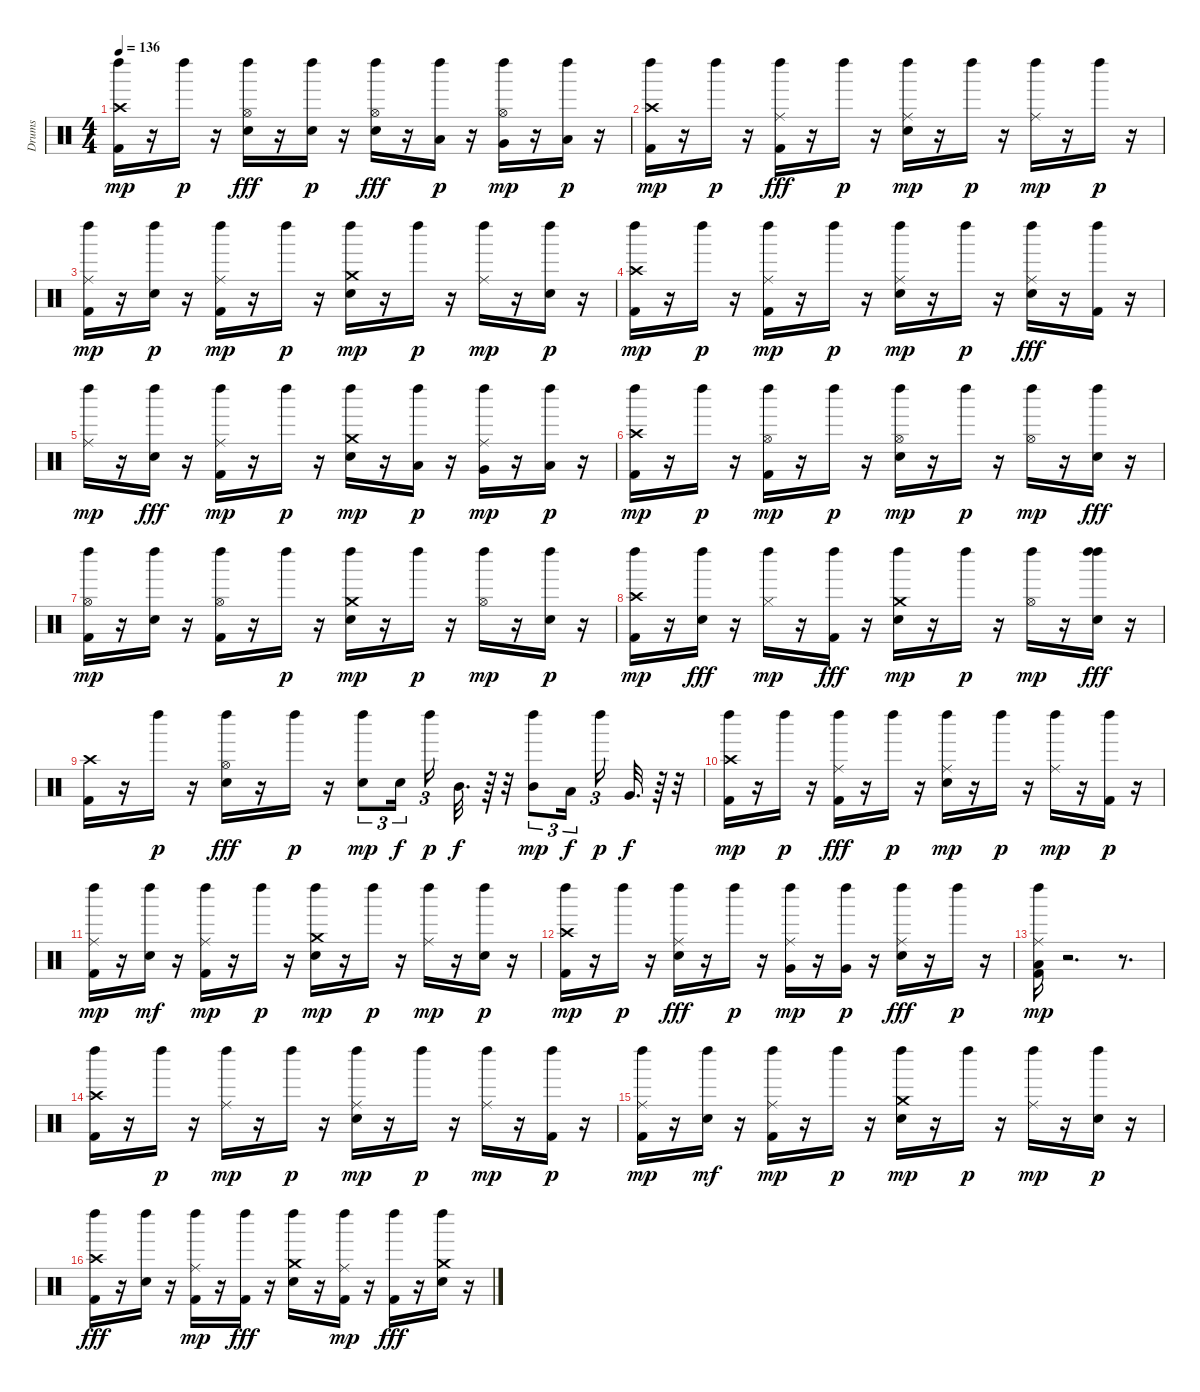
\track ("Drums" "Drums") {instrument percussion}
\staff {score}
\articulation defaults
\ts (4 4)
\tempo 136
\clef neutral
\ks c
("Kick (hit) 2" "Crash high (hit)" "Left Maraca (hit)").16{dy mp} r.16 "Left Maraca (hit)".16{dy p} r.16 ("Left Maraca (hit)" "Hi-Hat (open)" "Electric Snare (hit)").16{dy fff} r.16 ("Left Maraca (hit)" "Electric Snare (hit)").16{dy p} r.16 ("Left Maraca (hit)" "Hi-Hat (open)" "Electric Snare (hit)").16{dy fff} r.16 ("Left Maraca (hit)" "Low Tom (hit)").16{dy p} r.16 ("Left Maraca (hit)" "Hi-Hat (open)" "Very Low Tom (hit)").16{dy mp} r.16 ("Left Maraca (hit)" "Low Floor Tom (hit)").16{dy p} r.16 |
("Kick (hit) 2" "Crash high (hit)" "Left Maraca (hit)").16{dy mp} r.16 "Left Maraca (hit)".16{dy p} r.16 ("Ride (middle)" "Left Maraca (hit)" "Kick (hit) 2").16{dy fff} r.16 "Left Maraca (hit)".16{dy p} r.16 ("Electric Snare (hit)" "Ride (middle)" "Left Maraca (hit)").16{dy mp} r.16 "Left Maraca (hit)".16{dy p} r.16 ("Ride (middle)" "Left Maraca (hit)").16{dy mp} r.16 "Left Maraca (hit)".16{dy p} r.16 |
("Kick (hit) 2" "Ride (middle)" "Left Maraca (hit)").16{dy mp} r.16 ("Left Maraca (hit)" "Electric Snare (hit)").16{dy p} r.16 ("Kick (hit) 2" "Ride (middle)" "Left Maraca (hit)").16{dy mp} r.16 "Left Maraca (hit)".16{dy p} r.16 ("Electric Snare (hit)" "Crash medium (hit)" "Left Maraca (hit)").16{dy mp} r.16 "Left Maraca (hit)".16{dy p} r.16 ("Ride (middle)" "Left Maraca (hit)").16{dy mp} r.16 ("Electric Snare (hit)" "Left Maraca (hit)").16{dy p} r.16 |
("Kick (hit) 2" "Crash high (hit)" "Left Maraca (hit)").16{dy mp} r.16 "Left Maraca (hit)".16{dy p} r.16 ("Ride (middle)" "Kick (hit) 2" "Left Maraca (hit)").16{dy mp} r.16 "Left Maraca (hit)".16{dy p} r.16 ("Electric Snare (hit)" "Ride (middle)" "Left Maraca (hit)").16{dy mp} r.16 "Left Maraca (hit)".16{dy p} r.16 ("Ride (middle)" "Left Maraca (hit)" "Electric Snare (hit)").16{dy fff} r.16 ("Left Maraca (hit)" "Kick (hit) 2").16 r.16 |
("Ride (middle)" "Left Maraca (hit)").16{dy mp} r.16 ("Left Maraca (hit)" "Electric Snare (hit)").16{dy fff} r.16 ("Kick (hit) 2" "Ride (middle)" "Left Maraca (hit)").16{dy mp} r.16 "Left Maraca (hit)".16{dy p} r.16 ("Electric Snare (hit)" "Crash medium (hit)" "Left Maraca (hit)").16{dy mp} r.16 ("Left Maraca (hit)" "Low Tom (hit)").16{dy p} r.16 ("Ride (middle)" "Left Maraca (hit)" "Very Low Tom (hit)").16{dy mp} r.16 ("Left Maraca (hit)" "Low Floor Tom (hit)").16{dy p} r.16 |
("Kick (hit) 2" "Crash high (hit)" "Left Maraca (hit)").16{dy mp} r.16 "Left Maraca (hit)".16{dy p} r.16 ("Left Maraca (hit)" "Kick (hit) 2" "Hi-Hat (open)").16{dy mp} r.16 "Left Maraca (hit)".16{dy p} r.16 ("Electric Snare (hit)" "Left Maraca (hit)" "Hi-Hat (open)").16{dy mp} r.16 "Left Maraca (hit)".16{dy p} r.16 ("Left Maraca (hit)" "Hi-Hat (open)").16{dy mp} r.16 ("Left Maraca (hit)" "Electric Snare (hit)").16{dy fff} r.16 |
("Kick (hit) 2" "Left Maraca (hit)" "Hi-Hat (open)").16{dy mp} r.16 ("Left Maraca (hit)" "Electric Snare (hit)").16 r.16 ("Kick (hit) 2" "Left Maraca (hit)" "Hi-Hat (open)").16 r.16 "Left Maraca (hit)".16{dy p} r.16 ("Electric Snare (hit)" "Crash medium (hit)" "Left Maraca (hit)").16{dy mp} r.16 "Left Maraca (hit)".16{dy p} r.16 ("Left Maraca (hit)" "Hi-Hat (open)").16{dy mp} r.16 ("Electric Snare (hit)" "Left Maraca (hit)").16{dy p} r.16 |
("Kick (hit) 2" "Crash high (hit)" "Left Maraca (hit)").16{dy mp} r.16 ("Left Maraca (hit)" "Electric Snare (hit)").16{dy fff} r.16 ("Left Maraca (hit)" "Hi-Hat (closed)").16{dy mp} r.16 ("Left Maraca (hit)" "Kick (hit) 2").16{dy fff} r.16 ("Electric Snare (hit)" "Left Maraca (hit)" "Crash medium (hit)").16{dy mp} r.16 "Left Maraca (hit)".16{dy p} r.16 ("Left Maraca (hit)" "Hi-Hat (open)").16{dy mp} r.16 ("Left Maraca (hit)" "Left Maraca (hit)" "Electric Snare (hit)").16{dy fff} r.16 |
("Kick (hit) 2" "Crash high (hit)").16 r.16 "Left Maraca (hit)".16{dy p} r.16 ("Left Maraca (hit)" "Electric Snare (hit)" "Hi-Hat (open)").16{dy fff} r.16 "Left Maraca (hit)".16{dy p} r.16 ("Electric Snare (hit)" "Left Maraca (hit)").8{tu (3 2) dy mp} "Electric Snare (hit)".16{tu (3 2) dy f beam splitsecondary} "Left Maraca (hit)".16{tu (3 2) dy p} "Mid Tom (hit)".32{d dy f} r.64 r.32 ("Left Maraca (hit)" "Mid Tom (hit)").8{tu (3 2) dy mp} "Low Tom (hit)".16{tu (3 2) dy f beam splitsecondary} "Left Maraca (hit)".16{tu (3 2) dy p} "Very Low Tom (hit)".32{d dy f} r.64 r.32 |
("Kick (hit) 2" "Crash high (hit)" "Left Maraca (hit)").16{dy mp} r.16 "Left Maraca (hit)".16{dy p} r.16 ("Ride (middle)" "Left Maraca (hit)" "Kick (hit) 2").16{dy fff} r.16 "Left Maraca (hit)".16{dy p} r.16 ("Electric Snare (hit)" "Ride (middle)" "Left Maraca (hit)").16{dy mp} r.16 "Left Maraca (hit)".16{dy p} r.16 ("Ride (middle)" "Left Maraca (hit)").16{dy mp} r.16 ("Left Maraca (hit)" "Kick (hit) 2").16{dy p} r.16 |
("Kick (hit) 2" "Ride (middle)" "Left Maraca (hit)").16{dy mp} r.16 ("Left Maraca (hit)" "Electric Snare (hit)").16{dy mf} r.16 ("Kick (hit) 2" "Ride (middle)" "Left Maraca (hit)").16{dy mp} r.16 "Left Maraca (hit)".16{dy p} r.16 ("Electric Snare (hit)" "Crash medium (hit)" "Left Maraca (hit)").16{dy mp} r.16 "Left Maraca (hit)".16{dy p} r.16 ("Ride (middle)" "Left Maraca (hit)").16{dy mp} r.16 ("Electric Snare (hit)" "Left Maraca (hit)").16{dy p} r.16 |
("Kick (hit) 2" "Crash high (hit)" "Left Maraca (hit)").16{dy mp} r.16 "Left Maraca (hit)".16{dy p} r.16 ("Ride (middle)" "Left Maraca (hit)" "Electric Snare (hit)").16{dy fff} r.16 "Left Maraca (hit)".16{dy p} r.16 ("Ride (middle)" "Left Maraca (hit)" "Very Low Tom (hit)").16{dy mp} r.16 ("Left Maraca (hit)" "Very Low Tom (hit)").16{dy p} r.16 ("Ride (middle)" "Left Maraca (hit)" "Electric Snare (hit)").16{dy fff} r.16 "Left Maraca (hit)".16{dy p} r.16 |
("Kick (hit) 2" "Ride (middle)" "Left Maraca (hit)" "Low Floor Tom (hit)").16{dy mp} r.2{d} r.8{d} |
("Kick (hit) 2" "Crash high (hit)" "Left Maraca (hit)").16 r.16 "Left Maraca (hit)".16{dy p} r.16 ("Ride (middle)" "Left Maraca (hit)").16{dy mp} r.16 "Left Maraca (hit)".16{dy p} r.16 ("Electric Snare (hit)" "Ride (middle)" "Left Maraca (hit)").16{dy mp} r.16 "Left Maraca (hit)".16{dy p} r.16 ("Ride (middle)" "Left Maraca (hit)").16{dy mp} r.16 ("Left Maraca (hit)" "Kick (hit) 2").16{dy p} r.16 |
("Kick (hit) 2" "Ride (middle)" "Left Maraca (hit)").16{dy mp} r.16 ("Left Maraca (hit)" "Electric Snare (hit)").16{dy mf} r.16 ("Kick (hit) 2" "Ride (middle)" "Left Maraca (hit)").16{dy mp} r.16 "Left Maraca (hit)".16{dy p} r.16 ("Electric Snare (hit)" "Crash medium (hit)" "Left Maraca (hit)").16{dy mp} r.16 "Left Maraca (hit)".16{dy p} r.16 ("Ride (middle)" "Left Maraca (hit)").16{dy mp} r.16 ("Electric Snare (hit)" "Left Maraca (hit)").16{dy p} r.16 |
("Crash high (hit)" "Left Maraca (hit)" "Kick (hit) 2").16{dy fff} r.16 ("Left Maraca (hit)" "Electric Snare (hit)").16 r.16 ("Ride (middle)" "Left Maraca (hit)" "Kick (hit) 2").16{dy mp} r.16 ("Left Maraca (hit)" "Kick (hit) 2").16{dy fff} r.16 ("Left Maraca (hit)" "Electric Snare (hit)" "Crash medium (hit)").16 r.16 ("Left Maraca (hit)" "Ride (middle)" "Kick (hit) 2").16{dy mp} r.16 ("Left Maraca (hit)" "Kick (hit) 2").16{dy fff} r.16 ("Left Maraca (hit)" "Electric Snare (hit)" "Crash medium (hit)").16 r.16
